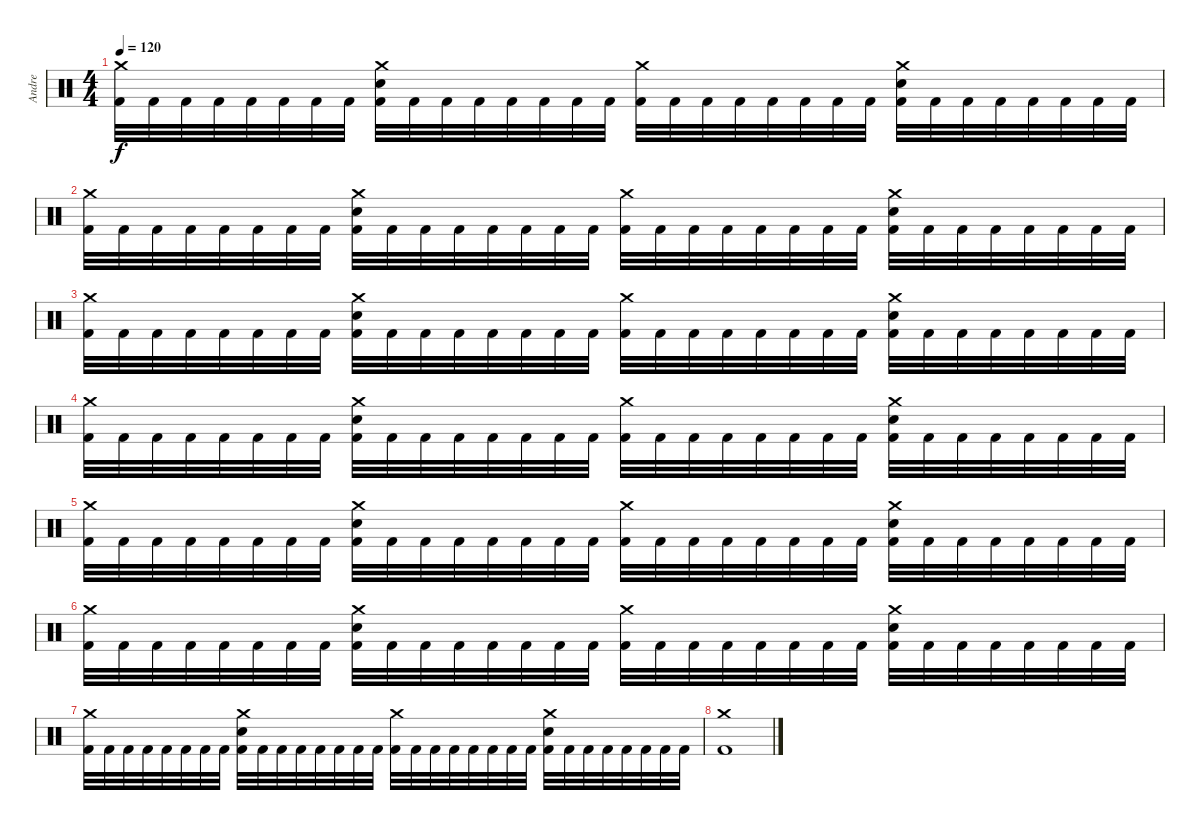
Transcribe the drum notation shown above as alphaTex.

\track ("Andre" "Andre") {instrument percussion}
\staff {score}
\articulation defaults
\ts (4 4)
\tempo 120
\clef neutral
\ks c
("Crash medium (hit)" "Kick (hit) 2").32{dy f} "Kick (hit) 2".32 "Kick (hit) 2".32 "Kick (hit) 2".32 "Kick (hit) 2".32 "Kick (hit) 2".32 "Kick (hit) 2".32 "Kick (hit) 2".32 ("Crash medium (hit)" "Snare (hit) 2" "Kick (hit) 2").32 "Kick (hit) 2".32 "Kick (hit) 2".32 "Kick (hit) 2".32 "Kick (hit) 2".32 "Kick (hit) 2".32 "Kick (hit) 2".32 "Kick (hit) 2".32 ("Crash medium (hit)" "Kick (hit) 2").32 "Kick (hit) 2".32 "Kick (hit) 2".32 "Kick (hit) 2".32 "Kick (hit) 2".32 "Kick (hit) 2".32 "Kick (hit) 2".32 "Kick (hit) 2".32 ("Crash medium (hit)" "Snare (hit) 2" "Kick (hit) 2").32 "Kick (hit) 2".32 "Kick (hit) 2".32 "Kick (hit) 2".32 "Kick (hit) 2".32 "Kick (hit) 2".32 "Kick (hit) 2".32 "Kick (hit) 2".32 |
("Crash medium (hit)" "Kick (hit) 2").32 "Kick (hit) 2".32 "Kick (hit) 2".32 "Kick (hit) 2".32 "Kick (hit) 2".32 "Kick (hit) 2".32 "Kick (hit) 2".32 "Kick (hit) 2".32 ("Crash medium (hit)" "Snare (hit) 2" "Kick (hit) 2").32 "Kick (hit) 2".32 "Kick (hit) 2".32 "Kick (hit) 2".32 "Kick (hit) 2".32 "Kick (hit) 2".32 "Kick (hit) 2".32 "Kick (hit) 2".32 ("Crash medium (hit)" "Kick (hit) 2").32 "Kick (hit) 2".32 "Kick (hit) 2".32 "Kick (hit) 2".32 "Kick (hit) 2".32 "Kick (hit) 2".32 "Kick (hit) 2".32 "Kick (hit) 2".32 ("Crash medium (hit)" "Snare (hit) 2" "Kick (hit) 2").32 "Kick (hit) 2".32 "Kick (hit) 2".32 "Kick (hit) 2".32 "Kick (hit) 2".32 "Kick (hit) 2".32 "Kick (hit) 2".32 "Kick (hit) 2".32 |
("Crash medium (hit)" "Kick (hit) 2").32 "Kick (hit) 2".32 "Kick (hit) 2".32 "Kick (hit) 2".32 "Kick (hit) 2".32 "Kick (hit) 2".32 "Kick (hit) 2".32 "Kick (hit) 2".32 ("Crash medium (hit)" "Snare (hit) 2" "Kick (hit) 2").32 "Kick (hit) 2".32 "Kick (hit) 2".32 "Kick (hit) 2".32 "Kick (hit) 2".32 "Kick (hit) 2".32 "Kick (hit) 2".32 "Kick (hit) 2".32 ("Crash medium (hit)" "Kick (hit) 2").32 "Kick (hit) 2".32 "Kick (hit) 2".32 "Kick (hit) 2".32 "Kick (hit) 2".32 "Kick (hit) 2".32 "Kick (hit) 2".32 "Kick (hit) 2".32 ("Crash medium (hit)" "Snare (hit) 2" "Kick (hit) 2").32 "Kick (hit) 2".32 "Kick (hit) 2".32 "Kick (hit) 2".32 "Kick (hit) 2".32 "Kick (hit) 2".32 "Kick (hit) 2".32 "Kick (hit) 2".32 |
("Crash medium (hit)" "Kick (hit) 2").32 "Kick (hit) 2".32 "Kick (hit) 2".32 "Kick (hit) 2".32 "Kick (hit) 2".32 "Kick (hit) 2".32 "Kick (hit) 2".32 "Kick (hit) 2".32 ("Crash medium (hit)" "Snare (hit) 2" "Kick (hit) 2").32 "Kick (hit) 2".32 "Kick (hit) 2".32 "Kick (hit) 2".32 "Kick (hit) 2".32 "Kick (hit) 2".32 "Kick (hit) 2".32 "Kick (hit) 2".32 ("Crash medium (hit)" "Kick (hit) 2").32 "Kick (hit) 2".32 "Kick (hit) 2".32 "Kick (hit) 2".32 "Kick (hit) 2".32 "Kick (hit) 2".32 "Kick (hit) 2".32 "Kick (hit) 2".32 ("Crash medium (hit)" "Snare (hit) 2" "Kick (hit) 2").32 "Kick (hit) 2".32 "Kick (hit) 2".32 "Kick (hit) 2".32 "Kick (hit) 2".32 "Kick (hit) 2".32 "Kick (hit) 2".32 "Kick (hit) 2".32 |
("Crash medium (hit)" "Kick (hit) 2").32 "Kick (hit) 2".32 "Kick (hit) 2".32 "Kick (hit) 2".32 "Kick (hit) 2".32 "Kick (hit) 2".32 "Kick (hit) 2".32 "Kick (hit) 2".32 ("Crash medium (hit)" "Snare (hit) 2" "Kick (hit) 2").32 "Kick (hit) 2".32 "Kick (hit) 2".32 "Kick (hit) 2".32 "Kick (hit) 2".32 "Kick (hit) 2".32 "Kick (hit) 2".32 "Kick (hit) 2".32 ("Crash medium (hit)" "Kick (hit) 2").32 "Kick (hit) 2".32 "Kick (hit) 2".32 "Kick (hit) 2".32 "Kick (hit) 2".32 "Kick (hit) 2".32 "Kick (hit) 2".32 "Kick (hit) 2".32 ("Crash medium (hit)" "Snare (hit) 2" "Kick (hit) 2").32 "Kick (hit) 2".32 "Kick (hit) 2".32 "Kick (hit) 2".32 "Kick (hit) 2".32 "Kick (hit) 2".32 "Kick (hit) 2".32 "Kick (hit) 2".32 |
("Crash medium (hit)" "Kick (hit) 2").32 "Kick (hit) 2".32 "Kick (hit) 2".32 "Kick (hit) 2".32 "Kick (hit) 2".32 "Kick (hit) 2".32 "Kick (hit) 2".32 "Kick (hit) 2".32 ("Crash medium (hit)" "Snare (hit) 2" "Kick (hit) 2").32 "Kick (hit) 2".32 "Kick (hit) 2".32 "Kick (hit) 2".32 "Kick (hit) 2".32 "Kick (hit) 2".32 "Kick (hit) 2".32 "Kick (hit) 2".32 ("Crash medium (hit)" "Kick (hit) 2").32 "Kick (hit) 2".32 "Kick (hit) 2".32 "Kick (hit) 2".32 "Kick (hit) 2".32 "Kick (hit) 2".32 "Kick (hit) 2".32 "Kick (hit) 2".32 ("Crash medium (hit)" "Snare (hit) 2" "Kick (hit) 2").32 "Kick (hit) 2".32 "Kick (hit) 2".32 "Kick (hit) 2".32 "Kick (hit) 2".32 "Kick (hit) 2".32 "Kick (hit) 2".32 "Kick (hit) 2".32 |
("Crash medium (hit)" "Kick (hit) 2").32 "Kick (hit) 2".32 "Kick (hit) 2".32 "Kick (hit) 2".32 "Kick (hit) 2".32 "Kick (hit) 2".32 "Kick (hit) 2".32 "Kick (hit) 2".32 ("Crash medium (hit)" "Snare (hit) 2" "Kick (hit) 2").32 "Kick (hit) 2".32 "Kick (hit) 2".32 "Kick (hit) 2".32 "Kick (hit) 2".32 "Kick (hit) 2".32 "Kick (hit) 2".32 "Kick (hit) 2".32 ("Crash medium (hit)" "Kick (hit) 2").32 "Kick (hit) 2".32 "Kick (hit) 2".32 "Kick (hit) 2".32 "Kick (hit) 2".32 "Kick (hit) 2".32 "Kick (hit) 2".32 "Kick (hit) 2".32 ("Crash medium (hit)" "Snare (hit) 2" "Kick (hit) 2").32 "Kick (hit) 2".32 "Kick (hit) 2".32 "Kick (hit) 2".32 "Kick (hit) 2".32 "Kick (hit) 2".32 "Kick (hit) 2".32 "Kick (hit) 2".32 |
("Crash medium (hit)" "Kick (hit) 2").1
